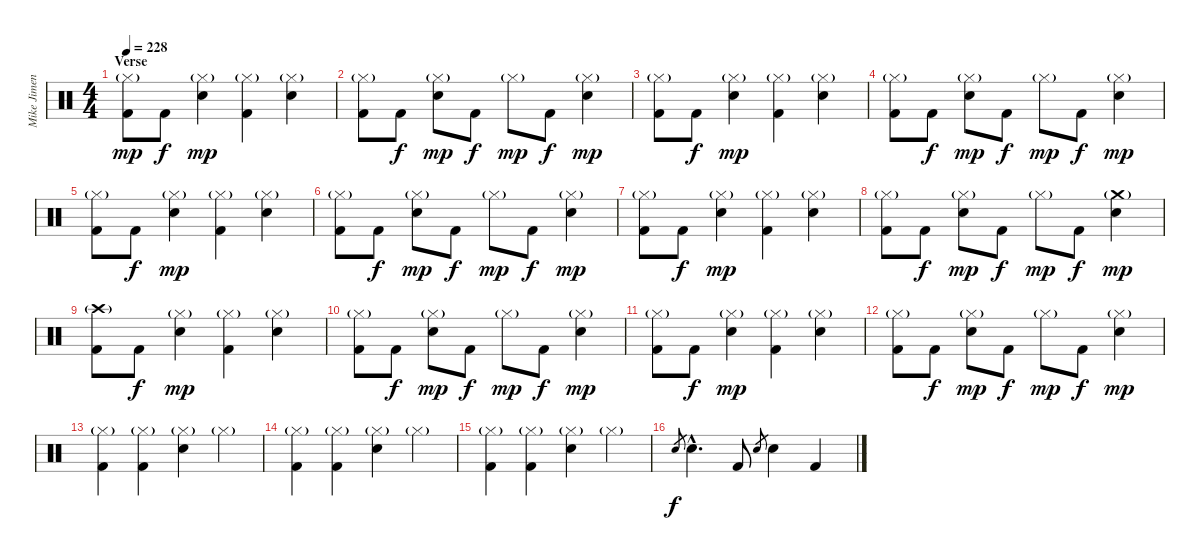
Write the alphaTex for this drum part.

\track ("Mike Jimenez" "Mike Jimen") {instrument percussion}
\staff {score}
\articulation defaults
\ts (4 4)
\section ("" "Verse")
\tempo 228
\clef neutral
\ks c
("Hi-Hat (closed)"{g} "Kick (hit) 2").8{dy mp} "Kick (hit) 2".8{dy f} ("Hi-Hat (closed)"{g} "Electric Snare (hit)").4{dy mp} ("Hi-Hat (closed)"{g} "Kick (hit) 2").4 ("Hi-Hat (closed)"{g} "Electric Snare (hit)").4 |
("Hi-Hat (closed)"{g} "Kick (hit) 2").8 "Kick (hit) 2".8{dy f} ("Hi-Hat (closed)"{g} "Electric Snare (hit)").8{dy mp} "Kick (hit) 2".8{dy f} "Hi-Hat (closed)"{g}.8{dy mp} "Kick (hit) 2".8{dy f} ("Hi-Hat (closed)"{g} "Electric Snare (hit)").4{dy mp} |
("Hi-Hat (closed)"{g} "Kick (hit) 2").8 "Kick (hit) 2".8{dy f} ("Hi-Hat (closed)"{g} "Electric Snare (hit)").4{dy mp} ("Hi-Hat (closed)"{g} "Kick (hit) 2").4 ("Hi-Hat (closed)"{g} "Electric Snare (hit)").4 |
("Hi-Hat (closed)"{g} "Kick (hit) 2").8 "Kick (hit) 2".8{dy f} ("Hi-Hat (closed)"{g} "Electric Snare (hit)").8{dy mp} "Kick (hit) 2".8{dy f} "Hi-Hat (closed)"{g}.8{dy mp} "Kick (hit) 2".8{dy f} ("Hi-Hat (closed)"{g} "Electric Snare (hit)").4{dy mp} |
("Hi-Hat (closed)"{g} "Kick (hit) 2").8 "Kick (hit) 2".8{dy f} ("Hi-Hat (closed)"{g} "Electric Snare (hit)").4{dy mp} ("Hi-Hat (closed)"{g} "Kick (hit) 2").4 ("Hi-Hat (closed)"{g} "Electric Snare (hit)").4 |
("Hi-Hat (closed)"{g} "Kick (hit) 2").8 "Kick (hit) 2".8{dy f} ("Hi-Hat (closed)"{g} "Electric Snare (hit)").8{dy mp} "Kick (hit) 2".8{dy f} "Hi-Hat (closed)"{g}.8{dy mp} "Kick (hit) 2".8{dy f} ("Hi-Hat (closed)"{g} "Electric Snare (hit)").4{dy mp} |
("Hi-Hat (closed)"{g} "Kick (hit) 2").8 "Kick (hit) 2".8{dy f} ("Hi-Hat (closed)"{g} "Electric Snare (hit)").4{dy mp} ("Hi-Hat (closed)"{g} "Kick (hit) 2").4 ("Hi-Hat (closed)"{g} "Electric Snare (hit)").4 |
("Hi-Hat (closed)"{g} "Kick (hit) 2").8 "Kick (hit) 2".8{dy f} ("Hi-Hat (closed)"{g} "Electric Snare (hit)").8{dy mp} "Kick (hit) 2".8{dy f} "Hi-Hat (closed)"{g}.8{dy mp} "Kick (hit) 2".8{dy f} ("Crash medium (hit)"{g} "Electric Snare (hit)").4{dy mp} |
("Crash high (hit)"{g} "Kick (hit) 2").8 "Kick (hit) 2".8{dy f} ("Hi-Hat (closed)"{g} "Electric Snare (hit)").4{dy mp} ("Hi-Hat (closed)"{g} "Kick (hit) 2").4 ("Hi-Hat (closed)"{g} "Electric Snare (hit)").4 |
("Hi-Hat (closed)"{g} "Kick (hit) 2").8 "Kick (hit) 2".8{dy f} ("Hi-Hat (closed)"{g} "Electric Snare (hit)").8{dy mp} "Kick (hit) 2".8{dy f} "Hi-Hat (closed)"{g}.8{dy mp} "Kick (hit) 2".8{dy f} ("Hi-Hat (closed)"{g} "Electric Snare (hit)").4{dy mp} |
("Hi-Hat (closed)"{g} "Kick (hit) 2").8 "Kick (hit) 2".8{dy f} ("Hi-Hat (closed)"{g} "Electric Snare (hit)").4{dy mp} ("Hi-Hat (closed)"{g} "Kick (hit) 2").4 ("Hi-Hat (closed)"{g} "Electric Snare (hit)").4 |
("Hi-Hat (closed)"{g} "Kick (hit) 2").8 "Kick (hit) 2".8{dy f} ("Hi-Hat (closed)"{g} "Electric Snare (hit)").8{dy mp} "Kick (hit) 2".8{dy f} "Hi-Hat (closed)"{g}.8{dy mp} "Kick (hit) 2".8{dy f} ("Hi-Hat (closed)"{g} "Electric Snare (hit)").4{dy mp} |
("Hi-Hat (closed)"{g} "Kick (hit) 2").4 ("Hi-Hat (closed)"{g} "Kick (hit) 2").4 ("Hi-Hat (closed)"{g} "Electric Snare (hit)").4 "Hi-Hat (closed)"{g}.4 |
("Hi-Hat (closed)"{g} "Kick (hit) 2").4 ("Hi-Hat (closed)"{g} "Kick (hit) 2").4 ("Hi-Hat (closed)"{g} "Electric Snare (hit)").4 "Hi-Hat (closed)"{g}.4 |
("Hi-Hat (closed)"{g} "Kick (hit) 2").4 ("Hi-Hat (closed)"{g} "Kick (hit) 2").4 ("Hi-Hat (closed)"{g} "Electric Snare (hit)").4 "Hi-Hat (closed)"{g}.4 |
"Electric Snare (hit)".8{gr dy f} "Electric Snare (hit)"{hac}.4{d} "Kick (hit) 2".8 "Electric Snare (hit)".8{gr} "Electric Snare (hit)".4 "Kick (hit) 2".4
